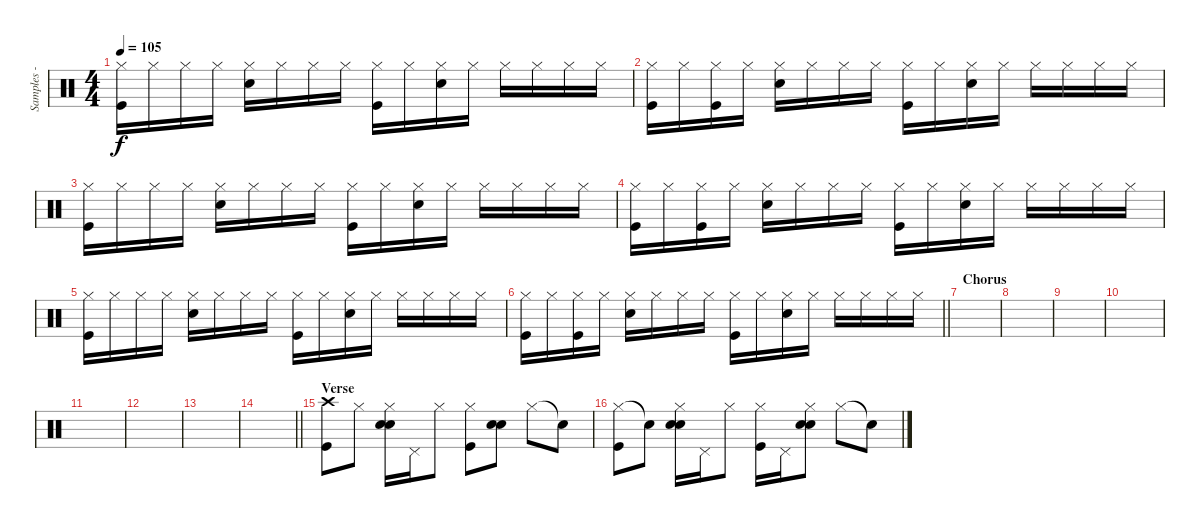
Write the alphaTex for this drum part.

\track ("Samples - Joe Hahn" "Samples - ") {instrument percussion}
\staff {score}
\articulation defaults
\ts (4 4)
\tempo 105
\clef neutral
\ks c
("Hi-Hat (closed)" "Kick (hit)").16{dy f} "Hi-Hat (closed)".16 "Hi-Hat (closed)".16 "Hi-Hat (closed)".16 ("Hi-Hat (closed)" "Electric Snare (hit)").16 "Hi-Hat (closed)".16 "Hi-Hat (closed)".16 "Hi-Hat (closed)".16 ("Hi-Hat (closed)" "Kick (hit)").16 "Hi-Hat (closed)".16 ("Hi-Hat (closed)" "Electric Snare (hit)").16 "Hi-Hat (closed)".16 "Hi-Hat (closed)".16 "Hi-Hat (closed)".16 "Hi-Hat (closed)".16 "Hi-Hat (closed)".16 |
("Hi-Hat (closed)" "Kick (hit)").16 "Hi-Hat (closed)".16 ("Hi-Hat (closed)" "Kick (hit)").16 "Hi-Hat (closed)".16 ("Hi-Hat (closed)" "Electric Snare (hit)").16 "Hi-Hat (closed)".16 "Hi-Hat (closed)".16 "Hi-Hat (closed)".16 ("Hi-Hat (closed)" "Kick (hit)").16 "Hi-Hat (closed)".16 ("Hi-Hat (closed)" "Electric Snare (hit)").16 "Hi-Hat (closed)".16 "Hi-Hat (closed)".16 "Hi-Hat (closed)".16 "Hi-Hat (closed)".16 "Hi-Hat (closed)".16 |
("Hi-Hat (closed)" "Kick (hit)").16 "Hi-Hat (closed)".16 "Hi-Hat (closed)".16 "Hi-Hat (closed)".16 ("Hi-Hat (closed)" "Electric Snare (hit)").16 "Hi-Hat (closed)".16 "Hi-Hat (closed)".16 "Hi-Hat (closed)".16 ("Hi-Hat (closed)" "Kick (hit)").16 "Hi-Hat (closed)".16 ("Hi-Hat (closed)" "Electric Snare (hit)").16 "Hi-Hat (closed)".16 "Hi-Hat (closed)".16 "Hi-Hat (closed)".16 "Hi-Hat (closed)".16 "Hi-Hat (closed)".16 |
("Hi-Hat (closed)" "Kick (hit)").16 "Hi-Hat (closed)".16 ("Hi-Hat (closed)" "Kick (hit)").16 "Hi-Hat (closed)".16 ("Hi-Hat (closed)" "Electric Snare (hit)").16 "Hi-Hat (closed)".16 "Hi-Hat (closed)".16 "Hi-Hat (closed)".16 ("Hi-Hat (closed)" "Kick (hit)").16 "Hi-Hat (closed)".16 ("Hi-Hat (closed)" "Electric Snare (hit)").16 "Hi-Hat (closed)".16 "Hi-Hat (closed)".16 "Hi-Hat (closed)".16 "Hi-Hat (closed)".16 "Hi-Hat (closed)".16 |
("Hi-Hat (closed)" "Kick (hit)").16 "Hi-Hat (closed)".16 "Hi-Hat (closed)".16 "Hi-Hat (closed)".16 ("Hi-Hat (closed)" "Electric Snare (hit)").16 "Hi-Hat (closed)".16 "Hi-Hat (closed)".16 "Hi-Hat (closed)".16 ("Hi-Hat (closed)" "Kick (hit)").16 "Hi-Hat (closed)".16 ("Hi-Hat (closed)" "Electric Snare (hit)").16 "Hi-Hat (closed)".16 "Hi-Hat (closed)".16 "Hi-Hat (closed)".16 "Hi-Hat (closed)".16 "Hi-Hat (closed)".16 |
\barLineRight lightlight
("Hi-Hat (closed)" "Kick (hit)").16 "Hi-Hat (closed)".16 ("Hi-Hat (closed)" "Kick (hit)").16 "Hi-Hat (closed)".16 ("Hi-Hat (closed)" "Electric Snare (hit)").16 "Hi-Hat (closed)".16 "Hi-Hat (closed)".16 "Hi-Hat (closed)".16 ("Hi-Hat (closed)" "Kick (hit)").16 "Hi-Hat (closed)".16 ("Hi-Hat (closed)" "Electric Snare (hit)").16 "Hi-Hat (closed)".16 "Hi-Hat (closed)".16 "Hi-Hat (closed)".16 "Hi-Hat (closed)".16 "Hi-Hat (closed)".16 |
\section ("" "Chorus")
|
|
|
|
|
|
|
\barLineRight lightlight
|
\section ("" "Verse")
("Crash high (hit)" "Kick (hit)").8 "Hi-Hat (closed)".8 ("Hi-Hat (closed)" "Electric Snare (hit)" "Hand Clap (hit)").16 "Pedal Hi-Hat (hit)".16 "Hi-Hat (closed)".8 ("Hi-Hat (closed)" "Kick (hit)").8 ("Electric Snare (hit)" "Hand Clap (hit)").8 "Hi-Hat (closed)".8 "Snare (hit)"{t}.8 |
("Hi-Hat (closed)" "Kick (hit)").8 "Snare (hit)"{t}.8 ("Hi-Hat (closed)" "Electric Snare (hit)" "Hand Clap (hit)").16 "Pedal Hi-Hat (hit)".16 "Hi-Hat (closed)".8 ("Hi-Hat (closed)" "Kick (hit)").16 "Pedal Hi-Hat (hit)".16 ("Hi-Hat (closed)" "Electric Snare (hit)" "Hand Clap (hit)").8 "Hi-Hat (closed)".8 "Snare (hit)"{t}.8
